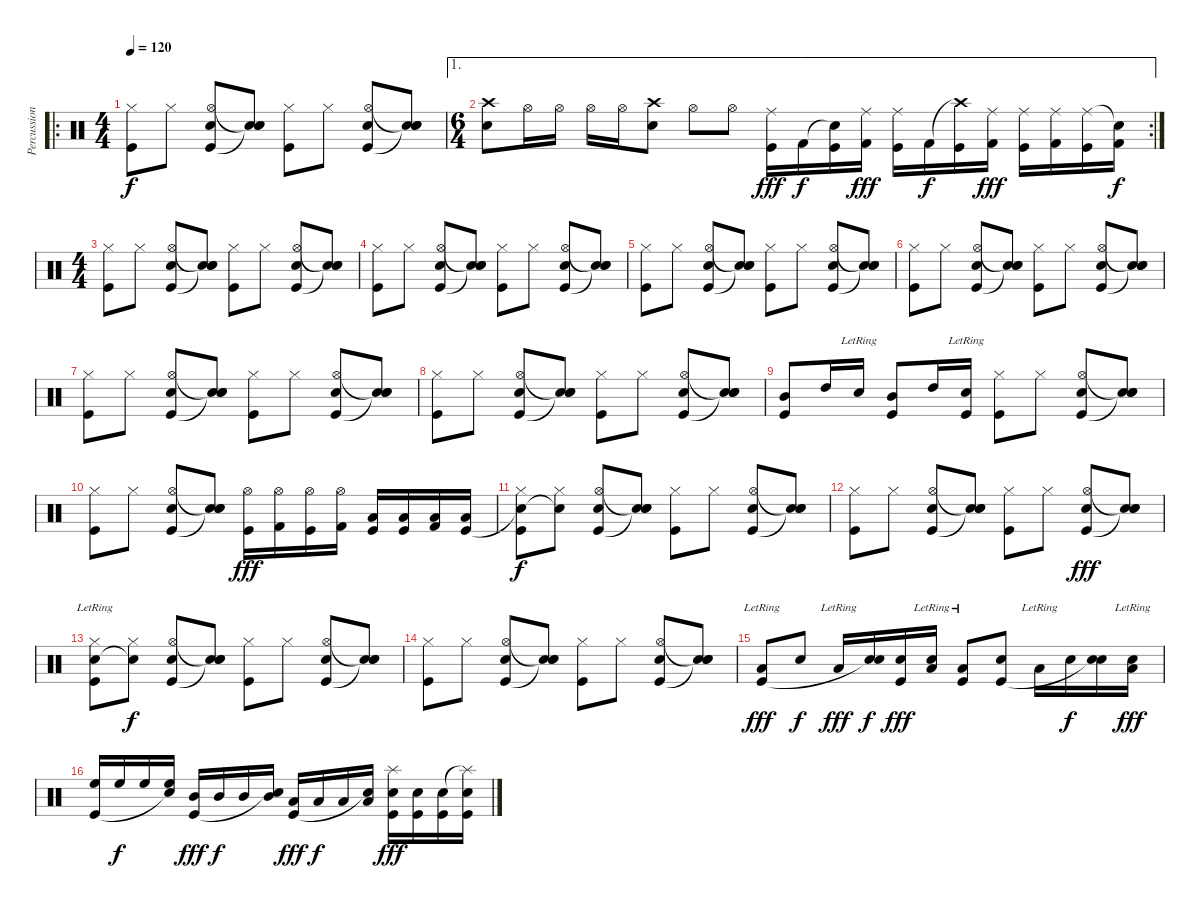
\track ("Percussion" "Percussion") {instrument percussion}
\staff {score}
\articulation defaults
\ro
\ts (4 4)
\tempo 120
\clef neutral
\ks c
("Hi-Hat (closed)" "Kick (hit)").8{dy f} "Hi-Hat (closed)".8 ("Hi-Hat (open)" "Snare (hit) 2" "Kick (hit)").8 ("Snare (hit)"{t} "Snare (hit) 2" "Snare (hit)"{t}).8 ("Hi-Hat (closed)" "Kick (hit)").8 "Hi-Hat (closed)".8 ("Hi-Hat (open)" "Snare (hit) 2" "Kick (hit)").8 ("Snare (hit)"{t} "Snare (hit) 2" "Snare (hit)"{t}).8 |
\ae 1
\rc 2
\ts (6 4)
("Crash high (hit)" "Snare (hit) 2").8 "Hi-Hat (open)".16 "Hi-Hat (open)".16 "Hi-Hat (open)".16 "Hi-Hat (open)".16 ("Crash high (hit)" "Snare (hit) 2").8 "Hi-Hat (open)".8 "Hi-Hat (open)".8 ("Ride (middle)" "Kick (hit)").16{dy fff} "Kick (hit) 2".16{dy f} ("Snare (hit)"{t} "Kick (hit)").16 ("Ride (middle)" "Kick (hit) 2").16{dy fff} ("Ride (middle)" "Kick (hit)").16 "Kick (hit) 2".16{dy f} ("Crash high (hit)"{t} "Kick (hit)").16 ("Ride (middle)" "Kick (hit) 2").16{dy fff} ("Ride (middle)" "Kick (hit)").16 ("Ride (middle)" "Kick (hit) 2").16 ("Ride (middle)" "Kick (hit)").16 ("Snare (hit)"{t} "Kick (hit) 2").16{dy f} |
\ts (4 4)
("Hi-Hat (closed)" "Kick (hit)").8 "Hi-Hat (closed)".8 ("Hi-Hat (open)" "Snare (hit) 2" "Kick (hit)").8 ("Snare (hit)"{t} "Snare (hit) 2" "Snare (hit)"{t}).8 ("Hi-Hat (closed)" "Kick (hit)").8 "Hi-Hat (closed)".8 ("Hi-Hat (open)" "Snare (hit) 2" "Kick (hit)").8 ("Snare (hit)"{t} "Snare (hit) 2" "Snare (hit)"{t}).8 |
("Hi-Hat (closed)" "Kick (hit)").8 "Hi-Hat (closed)".8 ("Hi-Hat (open)" "Snare (hit) 2" "Kick (hit)").8 ("Snare (hit)"{t} "Snare (hit) 2" "Snare (hit)"{t}).8 ("Hi-Hat (closed)" "Kick (hit)").8 "Hi-Hat (closed)".8 ("Hi-Hat (open)" "Snare (hit) 2" "Kick (hit)").8 ("Snare (hit)"{t} "Snare (hit) 2" "Snare (hit)"{t}).8 |
("Hi-Hat (closed)" "Kick (hit)").8 "Hi-Hat (closed)".8 ("Hi-Hat (open)" "Snare (hit) 2" "Kick (hit)").8 ("Snare (hit)"{t} "Snare (hit) 2" "Snare (hit)"{t}).8 ("Hi-Hat (closed)" "Kick (hit)").8 "Hi-Hat (closed)".8 ("Hi-Hat (open)" "Snare (hit) 2" "Kick (hit)").8 ("Snare (hit)"{t} "Snare (hit) 2" "Snare (hit)"{t}).8 |
("Hi-Hat (closed)" "Kick (hit)").8 "Hi-Hat (closed)".8 ("Hi-Hat (open)" "Snare (hit) 2" "Kick (hit)").8 ("Snare (hit)"{t} "Snare (hit) 2" "Snare (hit)"{t}).8 ("Hi-Hat (closed)" "Kick (hit)").8 "Hi-Hat (closed)".8 ("Hi-Hat (open)" "Snare (hit) 2" "Kick (hit)").8 ("Snare (hit)"{t} "Snare (hit) 2" "Snare (hit)"{t}).8 |
("Hi-Hat (closed)" "Kick (hit)").8 "Hi-Hat (closed)".8 ("Hi-Hat (open)" "Snare (hit) 2" "Kick (hit)").8 ("Snare (hit)"{t} "Snare (hit) 2" "Snare (hit)"{t}).8 ("Hi-Hat (closed)" "Kick (hit)").8 "Hi-Hat (closed)".8 ("Hi-Hat (open)" "Snare (hit) 2" "Kick (hit)").8 ("Snare (hit)"{t} "Snare (hit) 2" "Snare (hit)"{t}).8 |
("Hi-Hat (closed)" "Kick (hit)").8 "Hi-Hat (closed)".8 ("Hi-Hat (open)" "Snare (hit) 2" "Kick (hit)").8 ("Snare (hit)"{t} "Snare (hit) 2" "Snare (hit)"{t}).8 ("Hi-Hat (closed)" "Kick (hit)").8 "Hi-Hat (closed)".8 ("Hi-Hat (open)" "Snare (hit) 2" "Kick (hit)").8 ("Snare (hit)"{t} "Snare (hit) 2" "Snare (hit)"{t}).8 |
("Mid Tom (hit)" "Kick (hit)").8 "High Tom (hit)".16 "Snare (hit) 2"{lr}.16 ("Mid Tom (hit)" "Kick (hit)").8 "High Tom (hit)".16 ("Snare (hit) 2"{lr} "Kick (hit)").16 ("Hi-Hat (closed)" "Kick (hit)").8 "Hi-Hat (closed)".8 ("Hi-Hat (open)" "Snare (hit) 2" "Kick (hit)").8 ("Snare (hit)"{t} "Snare (hit) 2" "Snare (hit)"{t}).8 |
("Hi-Hat (closed)" "Kick (hit)").8 "Hi-Hat (closed)".8 ("Hi-Hat (open)" "Snare (hit) 2" "Kick (hit)").8 ("Snare (hit)"{t} "Snare (hit) 2" "Snare (hit)"{t}).8 ("Hi-Hat (open)" "Kick (hit)").16{dy fff} ("Hi-Hat (open)" "Kick (hit) 2").16 ("Hi-Hat (open)" "Kick (hit)").16 ("Hi-Hat (open)" "Kick (hit) 2").16 ("Low Tom (hit)" "Kick (hit)").16 ("Low Tom (hit)" "Kick (hit)").16 ("Low Tom (hit)" "Kick (hit) 2").16 ("Low Tom (hit)" "Kick (hit)").16 |
("Hi-Hat (closed)" "Snare (hit)"{t} "Kick (hit)").8{dy f} ("Hi-Hat (closed)" "Snare (hit)"{t}).8 ("Hi-Hat (open)" "Snare (hit) 2" "Kick (hit)").8 ("Snare (hit)"{t} "Snare (hit) 2" "Snare (hit)"{t}).8 ("Hi-Hat (closed)" "Kick (hit)").8 "Hi-Hat (closed)".8 ("Hi-Hat (open)" "Snare (hit) 2" "Kick (hit)").8 ("Snare (hit)"{t} "Snare (hit) 2" "Snare (hit)"{t}).8 |
("Hi-Hat (closed)" "Kick (hit)").8 "Hi-Hat (closed)".8 ("Hi-Hat (open)" "Snare (hit) 2" "Kick (hit)").8 ("Snare (hit)"{t} "Snare (hit) 2" "Snare (hit)"{t}).8 ("Hi-Hat (closed)" "Kick (hit)").8 "Hi-Hat (closed)".8 ("Hi-Hat (open)" "Snare (hit) 2" "Kick (hit)").8{dy fff} ("Snare (hit)"{t} "Snare (hit) 2" "Snare (hit)"{t}).8 |
("Hi-Hat (closed)" "Snare (hit) 2"{lr} "Kick (hit)").8 ("Hi-Hat (closed)" "Snare (hit) 2"{t}).8{dy f} ("Hi-Hat (open)" "Snare (hit) 2" "Kick (hit)").8 ("Snare (hit)"{t} "Snare (hit) 2" "Snare (hit)"{t}).8 ("Hi-Hat (closed)" "Kick (hit)").8 "Hi-Hat (closed)".8 ("Hi-Hat (open)" "Snare (hit) 2" "Kick (hit)").8 ("Snare (hit)"{t} "Snare (hit) 2" "Snare (hit)"{t}).8 |
("Hi-Hat (closed)" "Kick (hit)").8 "Hi-Hat (closed)".8 ("Hi-Hat (open)" "Snare (hit) 2" "Kick (hit)").8 ("Snare (hit)"{t} "Snare (hit) 2" "Snare (hit)"{t}).8 ("Hi-Hat (closed)" "Kick (hit)").8 "Hi-Hat (closed)".8 ("Hi-Hat (open)" "Snare (hit) 2" "Kick (hit)").8 ("Snare (hit)"{t} "Snare (hit) 2" "Snare (hit)"{t}).8 |
("Low Tom (hit)"{lr} "Kick (hit)").8{dy fff} "Snare (hit) 2".8{dy f} "Low Tom (hit)"{lr}.16{dy fff} ("Snare (hit) 2" "Snare (hit)"{t}).16{dy f} ("Snare (hit) 2" "Kick (hit)").16{dy fff} ("Low Tom (hit)"{lr} "Snare (hit) 2").16 ("Low Tom (hit)"{lr} "Kick (hit)").8 ("Snare (hit) 2" "Kick (hit)").8 "Low Tom (hit)"{lr}.16 "Snare (hit) 2".16{dy f} ("Snare (hit) 2" "Snare (hit)"{t}).16 ("Low Tom (hit)"{lr} "Snare (hit) 2").16{dy fff} |
("High Floor Tom (hit)" "Kick (hit)").16 "High Floor Tom (hit)".16{dy f} "High Floor Tom (hit)".16 ("High Floor Tom (hit)" "Snare (hit)"{t}).16 ("Mid Tom (hit)" "Kick (hit)").16{dy fff} "Mid Tom (hit)".16{dy f} "Mid Tom (hit)".16 ("Mid Tom (hit)" "Snare (hit)"{t}).16 ("Low Tom (hit)" "Kick (hit)").16{dy fff} "Low Tom (hit)".16{dy f} "Low Tom (hit)".16 ("Low Tom (hit)" "Snare (hit)"{t}).16 ("Splash (hit)" "Snare (hit) 2" "Kick (hit)").16{dy fff} ("Snare (hit) 2" "Kick (hit)").16 ("Snare (hit) 2" "Kick (hit)").16 ("Splash (hit)"{t} "Snare (hit) 2" "Kick (hit)").16
